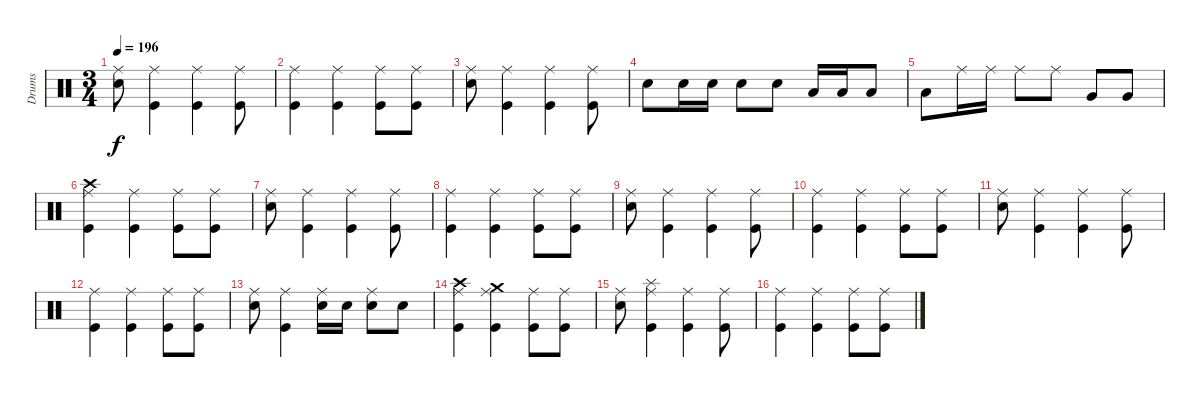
\track ("Drums" "Drums") {instrument percussion}
\staff {score}
\articulation defaults
\ts (3 4)
\tempo 196
\clef neutral
\ks c
("Ride (middle)" "Electric Snare (hit)").8{dy f} ("Ride (middle)" "Kick (hit)").4 ("Ride (middle)" "Kick (hit)").4 ("Ride (middle)" "Kick (hit)").8 |
("Ride (middle)" "Kick (hit)").4 ("Ride (middle)" "Kick (hit)").4 ("Ride (middle)" "Kick (hit)").8 ("Ride (middle)" "Kick (hit)").8 |
("Ride (middle)" "Electric Snare (hit)").8 ("Ride (middle)" "Kick (hit)").4 ("Ride (middle)" "Kick (hit)").4 ("Ride (middle)" "Kick (hit)").8 |
"Electric Snare (hit)".8 "Electric Snare (hit)".16 "Electric Snare (hit)".16 "Electric Snare (hit)".8 "Electric Snare (hit)".8 "Low Tom (hit)".16 "Low Tom (hit)".16 "Low Tom (hit)".8 |
"Low Tom (hit)".8 "Ride (middle)".16 "Ride (middle)".16 "Ride (middle)".8 "Ride (middle)".8 "Very Low Tom (hit)".8 "Very Low Tom (hit)".8 |
("Crash high (hit)" "Ride (middle)" "Kick (hit)").4 ("Ride (middle)" "Kick (hit)").4 ("Ride (middle)" "Kick (hit)").8 ("Ride (middle)" "Kick (hit)").8 |
("Ride (middle)" "Electric Snare (hit)").8 ("Ride (middle)" "Kick (hit)").4 ("Ride (middle)" "Kick (hit)").4 ("Ride (middle)" "Kick (hit)").8 |
("Ride (middle)" "Kick (hit)").4 ("Ride (middle)" "Kick (hit)").4 ("Ride (middle)" "Kick (hit)").8 ("Ride (middle)" "Kick (hit)").8 |
("Ride (middle)" "Electric Snare (hit)").8 ("Ride (middle)" "Kick (hit)").4 ("Ride (middle)" "Kick (hit)").4 ("Ride (middle)" "Kick (hit)").8 |
("Ride (middle)" "Kick (hit)").4 ("Ride (middle)" "Kick (hit)").4 ("Ride (middle)" "Kick (hit)").8 ("Ride (middle)" "Kick (hit)").8 |
("Ride (middle)" "Electric Snare (hit)").8 ("Ride (middle)" "Kick (hit)").4 ("Ride (middle)" "Kick (hit)").4 ("Ride (middle)" "Kick (hit)").8 |
("Ride (middle)" "Kick (hit)").4 ("Ride (middle)" "Kick (hit)").4 ("Ride (middle)" "Kick (hit)").8 ("Ride (middle)" "Kick (hit)").8 |
("Ride (middle)" "Electric Snare (hit)").8 ("Ride (middle)" "Kick (hit)").4 ("Ride (middle)" "Electric Snare (hit)").16 "Electric Snare (hit)".16 ("Ride (middle)" "Electric Snare (hit)").8 "Electric Snare (hit)".8 |
("Crash high (hit)" "Ride (middle)" "Kick (hit)").4 ("Crash medium (hit)" "Ride (middle)" "Kick (hit)").4 ("Ride (middle)" "Kick (hit)").8 ("Ride (middle)" "Kick (hit)").8 |
("Ride (middle)" "Electric Snare (hit)").8 ("Splash (hit)" "Ride (middle)" "Kick (hit)").4 ("Ride (middle)" "Kick (hit)").4 ("Ride (middle)" "Kick (hit)").8 |
("Ride (middle)" "Kick (hit)").4 ("Ride (middle)" "Kick (hit)").4 ("Ride (middle)" "Kick (hit)").8 ("Ride (middle)" "Kick (hit)").8
